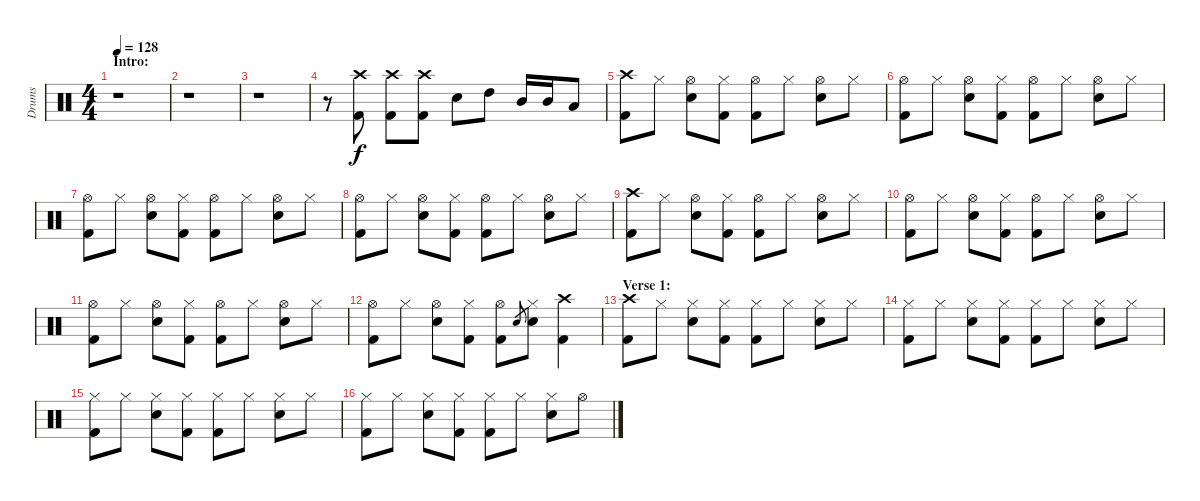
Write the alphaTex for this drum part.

\track ("Drums" "Drums") {instrument percussion}
\staff {score}
\articulation defaults
\ts (4 4)
\section ("" "Intro:")
\tempo 128
\clef neutral
\ks c
r.1{dy f} |
r.1 |
r.1 |
r.8 ("Crash high (hit)" "Kick (hit) 2").8 ("Crash high (hit)" "Kick (hit) 2").8 ("Crash high (hit)" "Kick (hit) 2").8 "Electric Snare (hit)".8 "High Tom (hit)".8 "Mid Tom (hit)".16 "Mid Tom (hit)".16 "Low Tom (hit)".8 |
("Crash high (hit)" "Kick (hit) 2").8 "Hi-Hat (closed)".8 ("Hi-Hat (open)" "Electric Snare (hit)").8 ("Hi-Hat (closed)" "Kick (hit) 2").8 ("Hi-Hat (open)" "Kick (hit) 2").8 "Hi-Hat (closed)".8 ("Hi-Hat (open)" "Electric Snare (hit)").8 "Hi-Hat (closed)".8 |
("Hi-Hat (open)" "Kick (hit) 2").8 "Hi-Hat (closed)".8 ("Hi-Hat (open)" "Electric Snare (hit)").8 ("Hi-Hat (closed)" "Kick (hit) 2").8 ("Hi-Hat (open)" "Kick (hit) 2").8 "Hi-Hat (closed)".8 ("Hi-Hat (open)" "Electric Snare (hit)").8 "Hi-Hat (closed)".8 |
("Hi-Hat (open)" "Kick (hit) 2").8 "Hi-Hat (closed)".8 ("Hi-Hat (open)" "Electric Snare (hit)").8 ("Hi-Hat (closed)" "Kick (hit) 2").8 ("Hi-Hat (open)" "Kick (hit) 2").8 "Hi-Hat (closed)".8 ("Hi-Hat (open)" "Electric Snare (hit)").8 "Hi-Hat (closed)".8 |
("Hi-Hat (open)" "Kick (hit) 2").8 "Hi-Hat (closed)".8 ("Hi-Hat (open)" "Electric Snare (hit)").8 ("Hi-Hat (closed)" "Kick (hit) 2").8 ("Hi-Hat (open)" "Kick (hit) 2").8 "Hi-Hat (closed)".8 ("Hi-Hat (open)" "Electric Snare (hit)").8 "Hi-Hat (closed)".8 |
("Crash high (hit)" "Kick (hit) 2").8 "Hi-Hat (closed)".8 ("Hi-Hat (open)" "Electric Snare (hit)").8 ("Hi-Hat (closed)" "Kick (hit) 2").8 ("Hi-Hat (open)" "Kick (hit) 2").8 "Hi-Hat (closed)".8 ("Hi-Hat (open)" "Electric Snare (hit)").8 "Hi-Hat (closed)".8 |
("Hi-Hat (open)" "Kick (hit) 2").8 "Hi-Hat (closed)".8 ("Hi-Hat (open)" "Electric Snare (hit)").8 ("Hi-Hat (closed)" "Kick (hit) 2").8 ("Hi-Hat (open)" "Kick (hit) 2").8 "Hi-Hat (closed)".8 ("Hi-Hat (open)" "Electric Snare (hit)").8 "Hi-Hat (closed)".8 |
("Hi-Hat (open)" "Kick (hit) 2").8 "Hi-Hat (closed)".8 ("Hi-Hat (open)" "Electric Snare (hit)").8 ("Hi-Hat (closed)" "Kick (hit) 2").8 ("Hi-Hat (open)" "Kick (hit) 2").8 "Hi-Hat (closed)".8 ("Hi-Hat (open)" "Electric Snare (hit)").8 "Hi-Hat (closed)".8 |
("Hi-Hat (open)" "Kick (hit) 2").8 "Hi-Hat (closed)".8 ("Hi-Hat (open)" "Electric Snare (hit)").8 ("Hi-Hat (closed)" "Kick (hit) 2").8 ("Hi-Hat (open)" "Kick (hit) 2").8 "Electric Snare (hit)".8{gr} ("Hi-Hat (closed)" "Electric Snare (hit)").8 ("Crash high (hit)" "Kick (hit) 2").4 |
\section ("" "Verse 1:")
("Crash high (hit)" "Kick (hit) 2").8 "Hi-Hat (closed)".8 ("Hi-Hat (closed)" "Electric Snare (hit)").8 ("Hi-Hat (closed)" "Kick (hit) 2").8 ("Hi-Hat (closed)" "Kick (hit) 2").8 "Hi-Hat (closed)".8 ("Hi-Hat (closed)" "Electric Snare (hit)").8 "Hi-Hat (closed)".8 |
("Hi-Hat (closed)" "Kick (hit) 2").8 "Hi-Hat (closed)".8 ("Hi-Hat (closed)" "Electric Snare (hit)").8 ("Hi-Hat (closed)" "Kick (hit) 2").8 ("Hi-Hat (closed)" "Kick (hit) 2").8 "Hi-Hat (closed)".8 ("Hi-Hat (closed)" "Electric Snare (hit)").8 "Hi-Hat (closed)".8 |
("Hi-Hat (closed)" "Kick (hit) 2").8 "Hi-Hat (closed)".8 ("Hi-Hat (closed)" "Electric Snare (hit)").8 ("Hi-Hat (closed)" "Kick (hit) 2").8 ("Hi-Hat (closed)" "Kick (hit) 2").8 "Hi-Hat (closed)".8 ("Hi-Hat (closed)" "Electric Snare (hit)").8 "Hi-Hat (closed)".8 |
("Hi-Hat (closed)" "Kick (hit) 2").8 "Hi-Hat (closed)".8 ("Hi-Hat (closed)" "Electric Snare (hit)").8 ("Hi-Hat (closed)" "Kick (hit) 2").8 ("Hi-Hat (closed)" "Kick (hit) 2").8 "Hi-Hat (closed)".8 ("Hi-Hat (closed)" "Electric Snare (hit)").8 "Hi-Hat (open)".8
